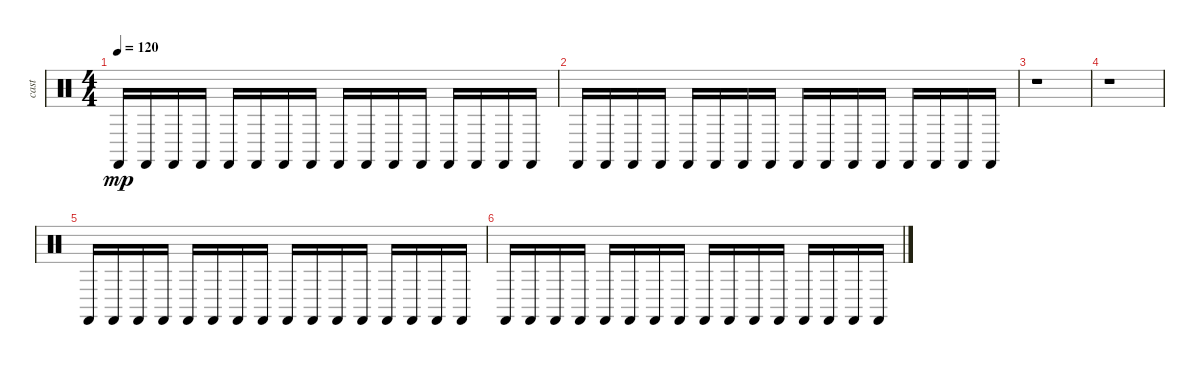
\track ("cast" "cast") {instrument percussion}
\staff {score}
\articulation defaults
\ts (4 4)
\tempo 120
\clef neutral
\ks c "Castanets (hit)".16{dy mp} "Castanets (hit)".16 "Castanets (hit)".16 "Castanets (hit)".16 "Castanets (hit)".16 "Castanets (hit)".16 "Castanets (hit)".16 "Castanets (hit)".16 "Castanets (hit)".16 "Castanets (hit)".16 "Castanets (hit)".16 "Castanets (hit)".16 "Castanets (hit)".16 "Castanets (hit)".16 "Castanets (hit)".16 "Castanets (hit)".16
|
"Castanets (hit)".16 "Castanets (hit)".16 "Castanets (hit)".16 "Castanets (hit)".16 "Castanets (hit)".16 "Castanets (hit)".16 "Castanets (hit)".16 "Castanets (hit)".16 "Castanets (hit)".16 "Castanets (hit)".16 "Castanets (hit)".16 "Castanets (hit)".16 "Castanets (hit)".16 "Castanets (hit)".16 "Castanets (hit)".16 "Castanets (hit)".16 |
r.1 |
r.1 |
"Castanets (hit)".16 "Castanets (hit)".16 "Castanets (hit)".16 "Castanets (hit)".16 "Castanets (hit)".16 "Castanets (hit)".16 "Castanets (hit)".16 "Castanets (hit)".16 "Castanets (hit)".16 "Castanets (hit)".16 "Castanets (hit)".16 "Castanets (hit)".16 "Castanets (hit)".16 "Castanets (hit)".16 "Castanets (hit)".16 "Castanets (hit)".16 |
"Castanets (hit)".16 "Castanets (hit)".16 "Castanets (hit)".16 "Castanets (hit)".16 "Castanets (hit)".16 "Castanets (hit)".16 "Castanets (hit)".16 "Castanets (hit)".16 "Castanets (hit)".16 "Castanets (hit)".16 "Castanets (hit)".16 "Castanets (hit)".16 "Castanets (hit)".16 "Castanets (hit)".16 "Castanets (hit)".16 "Castanets (hit)".16
